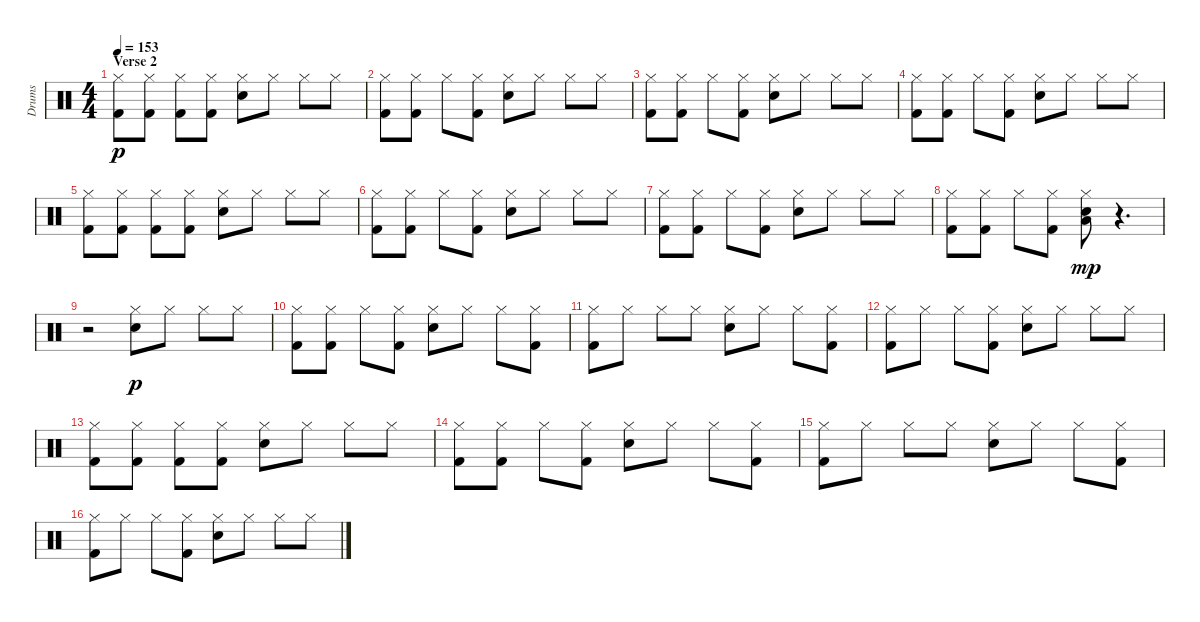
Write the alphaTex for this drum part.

\track ("Drums" "Drums") {instrument percussion}
\staff {score}
\articulation defaults
\ts (4 4)
\section ("" "Verse 2")
\tempo 153
\clef neutral
\ks c
("Hi-Hat (closed)" "Kick (hit) 2").8{dy p} ("Hi-Hat (closed)" "Kick (hit) 2").8 ("Hi-Hat (closed)" "Kick (hit) 2").8 ("Hi-Hat (closed)" "Kick (hit) 2").8 ("Hi-Hat (closed)" "Electric Snare (hit)").8 "Hi-Hat (closed)".8 "Hi-Hat (closed)".8 "Hi-Hat (closed)".8 |
("Hi-Hat (closed)" "Kick (hit) 2").8 ("Hi-Hat (closed)" "Kick (hit) 2").8 "Hi-Hat (closed)".8 ("Hi-Hat (closed)" "Kick (hit) 2").8 ("Hi-Hat (closed)" "Electric Snare (hit)").8 "Hi-Hat (closed)".8 "Hi-Hat (closed)".8 "Hi-Hat (closed)".8 |
("Hi-Hat (closed)" "Kick (hit) 2").8 ("Hi-Hat (closed)" "Kick (hit) 2").8 "Hi-Hat (closed)".8 ("Hi-Hat (closed)" "Kick (hit) 2").8 ("Hi-Hat (closed)" "Electric Snare (hit)").8 "Hi-Hat (closed)".8 "Hi-Hat (closed)".8 "Hi-Hat (closed)".8 |
("Hi-Hat (closed)" "Kick (hit) 2").8 ("Hi-Hat (closed)" "Kick (hit) 2").8 "Hi-Hat (closed)".8 ("Hi-Hat (closed)" "Kick (hit) 2").8 ("Hi-Hat (closed)" "Electric Snare (hit)").8 "Hi-Hat (closed)".8 "Hi-Hat (closed)".8 "Hi-Hat (closed)".8 |
("Hi-Hat (closed)" "Kick (hit) 2").8 ("Hi-Hat (closed)" "Kick (hit) 2").8 ("Hi-Hat (closed)" "Kick (hit) 2").8 ("Hi-Hat (closed)" "Kick (hit) 2").8 ("Hi-Hat (closed)" "Electric Snare (hit)").8 "Hi-Hat (closed)".8 "Hi-Hat (closed)".8 "Hi-Hat (closed)".8 |
("Hi-Hat (closed)" "Kick (hit) 2").8 ("Hi-Hat (closed)" "Kick (hit) 2").8 "Hi-Hat (closed)".8 ("Hi-Hat (closed)" "Kick (hit) 2").8 ("Hi-Hat (closed)" "Electric Snare (hit)").8 "Hi-Hat (closed)".8 "Hi-Hat (closed)".8 "Hi-Hat (closed)".8 |
("Hi-Hat (closed)" "Kick (hit) 2").8 ("Hi-Hat (closed)" "Kick (hit) 2").8 "Hi-Hat (closed)".8 ("Hi-Hat (closed)" "Kick (hit) 2").8 ("Hi-Hat (closed)" "Electric Snare (hit)").8 "Hi-Hat (closed)".8 "Hi-Hat (closed)".8 "Hi-Hat (closed)".8 |
("Hi-Hat (closed)" "Kick (hit) 2").8 ("Hi-Hat (closed)" "Kick (hit) 2").8 "Hi-Hat (closed)".8 ("Hi-Hat (closed)" "Kick (hit) 2").8 ("Hi-Hat (closed)" "Electric Snare (hit)" "Low Floor Tom (hit)").8{dy mp} r.4{d} |
r.2 ("Hi-Hat (closed)" "Electric Snare (hit)").8{dy p} "Hi-Hat (closed)".8 "Hi-Hat (closed)".8 "Hi-Hat (closed)".8 |
("Hi-Hat (closed)" "Kick (hit) 2").8 ("Hi-Hat (closed)" "Kick (hit) 2").8 "Hi-Hat (closed)".8 ("Hi-Hat (closed)" "Kick (hit) 2").8 ("Hi-Hat (closed)" "Electric Snare (hit)").8 "Hi-Hat (closed)".8 "Hi-Hat (closed)".8 ("Hi-Hat (closed)" "Kick (hit) 2").8 |
("Hi-Hat (closed)" "Kick (hit) 2").8 "Hi-Hat (closed)".8 "Hi-Hat (closed)".8 "Hi-Hat (closed)".8 ("Hi-Hat (closed)" "Electric Snare (hit)").8 "Hi-Hat (closed)".8 "Hi-Hat (closed)".8 ("Hi-Hat (closed)" "Kick (hit) 2").8 |
("Hi-Hat (closed)" "Kick (hit) 2").8 "Hi-Hat (closed)".8 "Hi-Hat (closed)".8 ("Hi-Hat (closed)" "Kick (hit) 2").8 ("Hi-Hat (closed)" "Electric Snare (hit)").8 "Hi-Hat (closed)".8 "Hi-Hat (closed)".8 "Hi-Hat (closed)".8 |
("Hi-Hat (closed)" "Kick (hit) 2").8 ("Hi-Hat (closed)" "Kick (hit) 2").8 ("Hi-Hat (closed)" "Kick (hit) 2").8 ("Hi-Hat (closed)" "Kick (hit) 2").8 ("Hi-Hat (closed)" "Electric Snare (hit)").8 "Hi-Hat (closed)".8 "Hi-Hat (closed)".8 "Hi-Hat (closed)".8 |
("Hi-Hat (closed)" "Kick (hit) 2").8 ("Hi-Hat (closed)" "Kick (hit) 2").8 "Hi-Hat (closed)".8 ("Hi-Hat (closed)" "Kick (hit) 2").8 ("Hi-Hat (closed)" "Electric Snare (hit)").8 "Hi-Hat (closed)".8 "Hi-Hat (closed)".8 ("Hi-Hat (closed)" "Kick (hit) 2").8 |
("Hi-Hat (closed)" "Kick (hit) 2").8 "Hi-Hat (closed)".8 "Hi-Hat (closed)".8 "Hi-Hat (closed)".8 ("Hi-Hat (closed)" "Electric Snare (hit)").8 "Hi-Hat (closed)".8 "Hi-Hat (closed)".8 ("Hi-Hat (closed)" "Kick (hit) 2").8 |
("Hi-Hat (closed)" "Kick (hit) 2").8 "Hi-Hat (closed)".8 "Hi-Hat (closed)".8 ("Hi-Hat (closed)" "Kick (hit) 2").8 ("Hi-Hat (closed)" "Electric Snare (hit)").8 "Hi-Hat (closed)".8 "Hi-Hat (closed)".8 "Hi-Hat (closed)".8
